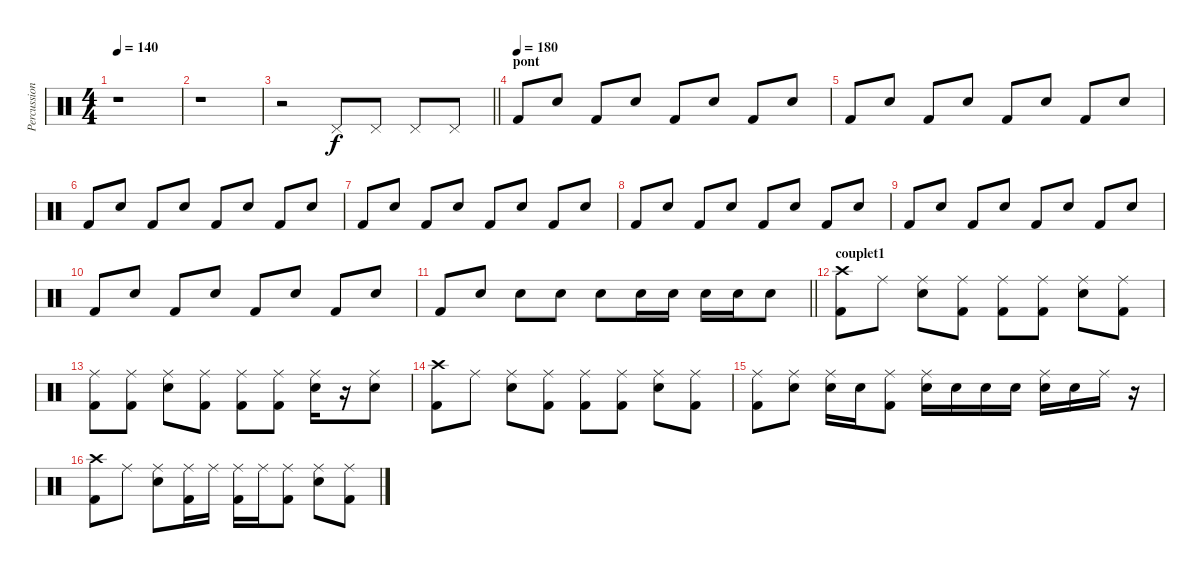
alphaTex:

\track ("Percussions" "Percussion") {instrument percussion}
\staff {score}
\articulation defaults
\ts (4 4)
\tempo 140
\clef neutral
\ks c
r.1{dy f} |
r.1 |
\barLineRight lightlight
r.2 "Pedal Hi-Hat (hit)".8 "Pedal Hi-Hat (hit)".8 "Pedal Hi-Hat (hit)".8 "Pedal Hi-Hat (hit)".8 |
\section ("" "pont")
\tempo (180)
"Kick (hit) 2".8 "Snare (hit) 2".8 "Kick (hit) 2".8 "Snare (hit) 2".8 "Kick (hit) 2".8 "Snare (hit) 2".8 "Kick (hit) 2".8 "Snare (hit) 2".8 |
"Kick (hit) 2".8 "Snare (hit) 2".8 "Kick (hit) 2".8 "Snare (hit) 2".8 "Kick (hit) 2".8 "Snare (hit) 2".8 "Kick (hit) 2".8 "Snare (hit) 2".8 |
"Kick (hit) 2".8 "Snare (hit) 2".8 "Kick (hit) 2".8 "Snare (hit) 2".8 "Kick (hit) 2".8 "Snare (hit) 2".8 "Kick (hit) 2".8 "Snare (hit) 2".8 |
"Kick (hit) 2".8 "Snare (hit) 2".8 "Kick (hit) 2".8 "Snare (hit) 2".8 "Kick (hit) 2".8 "Snare (hit) 2".8 "Kick (hit) 2".8 "Snare (hit) 2".8 |
"Kick (hit) 2".8 "Snare (hit) 2".8 "Kick (hit) 2".8 "Snare (hit) 2".8 "Kick (hit) 2".8 "Snare (hit) 2".8 "Kick (hit) 2".8 "Snare (hit) 2".8 |
"Kick (hit) 2".8 "Snare (hit) 2".8 "Kick (hit) 2".8 "Snare (hit) 2".8 "Kick (hit) 2".8 "Snare (hit) 2".8 "Kick (hit) 2".8 "Snare (hit) 2".8 |
"Kick (hit) 2".8 "Snare (hit) 2".8 "Kick (hit) 2".8 "Snare (hit) 2".8 "Kick (hit) 2".8 "Snare (hit) 2".8 "Kick (hit) 2".8 "Snare (hit) 2".8 |
\barLineRight lightlight "Kick (hit) 2".8 "Snare (hit) 2".8 "Snare (hit) 2".8 "Snare (hit) 2".8 "Snare (hit) 2".8 "Snare (hit) 2".16 "Snare (hit) 2".16 "Snare (hit) 2".16 "Snare (hit) 2".16 "Snare (hit) 2".8
|
\section ("" "couplet1")
("Crash high (hit)" "Kick (hit) 2").8 "Ride (middle)".8 ("Ride (middle)" "Snare (hit) 2").8 ("Ride (middle)" "Kick (hit) 2").8 ("Ride (middle)" "Kick (hit) 2").8 ("Ride (middle)" "Kick (hit) 2").8 ("Ride (middle)" "Snare (hit) 2").8 ("Ride (middle)" "Kick (hit) 2").8 |
("Ride (middle)" "Kick (hit) 2").8 ("Ride (middle)" "Kick (hit) 2").8 ("Ride (middle)" "Snare (hit) 2").8 ("Ride (middle)" "Kick (hit) 2").8 ("Ride (middle)" "Kick (hit) 2").8 ("Ride (middle)" "Kick (hit) 2").8 ("Ride (middle)" "Snare (hit) 2").16 r.16 ("Ride (middle)" "Snare (hit) 2").8 |
("Crash high (hit)" "Kick (hit) 2").8 "Ride (middle)".8 ("Ride (middle)" "Snare (hit) 2").8 ("Ride (middle)" "Kick (hit) 2").8 ("Ride (middle)" "Kick (hit) 2").8 ("Ride (middle)" "Kick (hit) 2").8 ("Ride (middle)" "Snare (hit) 2").8 ("Ride (middle)" "Kick (hit) 2").8 |
("Ride (middle)" "Kick (hit) 2").8 ("Ride (middle)" "Snare (hit) 2").8 ("Ride (middle)" "Snare (hit) 2").16 "Snare (hit) 2".16 ("Ride (middle)" "Kick (hit) 2").8 ("Ride (middle)" "Snare (hit) 2").16 "Snare (hit) 2".16 "Snare (hit) 2".16 "Snare (hit) 2".16 ("Ride (middle)" "Snare (hit) 2").16 "Snare (hit) 2".16 "Ride (middle)".16 r.16 |
("Crash high (hit)" "Kick (hit) 2").8 "Ride (middle)".8 ("Ride (middle)" "Snare (hit) 2").8 ("Ride (middle)" "Kick (hit) 2").16 "Ride (middle)".16 ("Ride (middle)" "Kick (hit) 2").16 "Ride (middle)".16 ("Ride (middle)" "Kick (hit) 2").8 ("Ride (middle)" "Snare (hit) 2").8 ("Ride (middle)" "Kick (hit) 2").8
